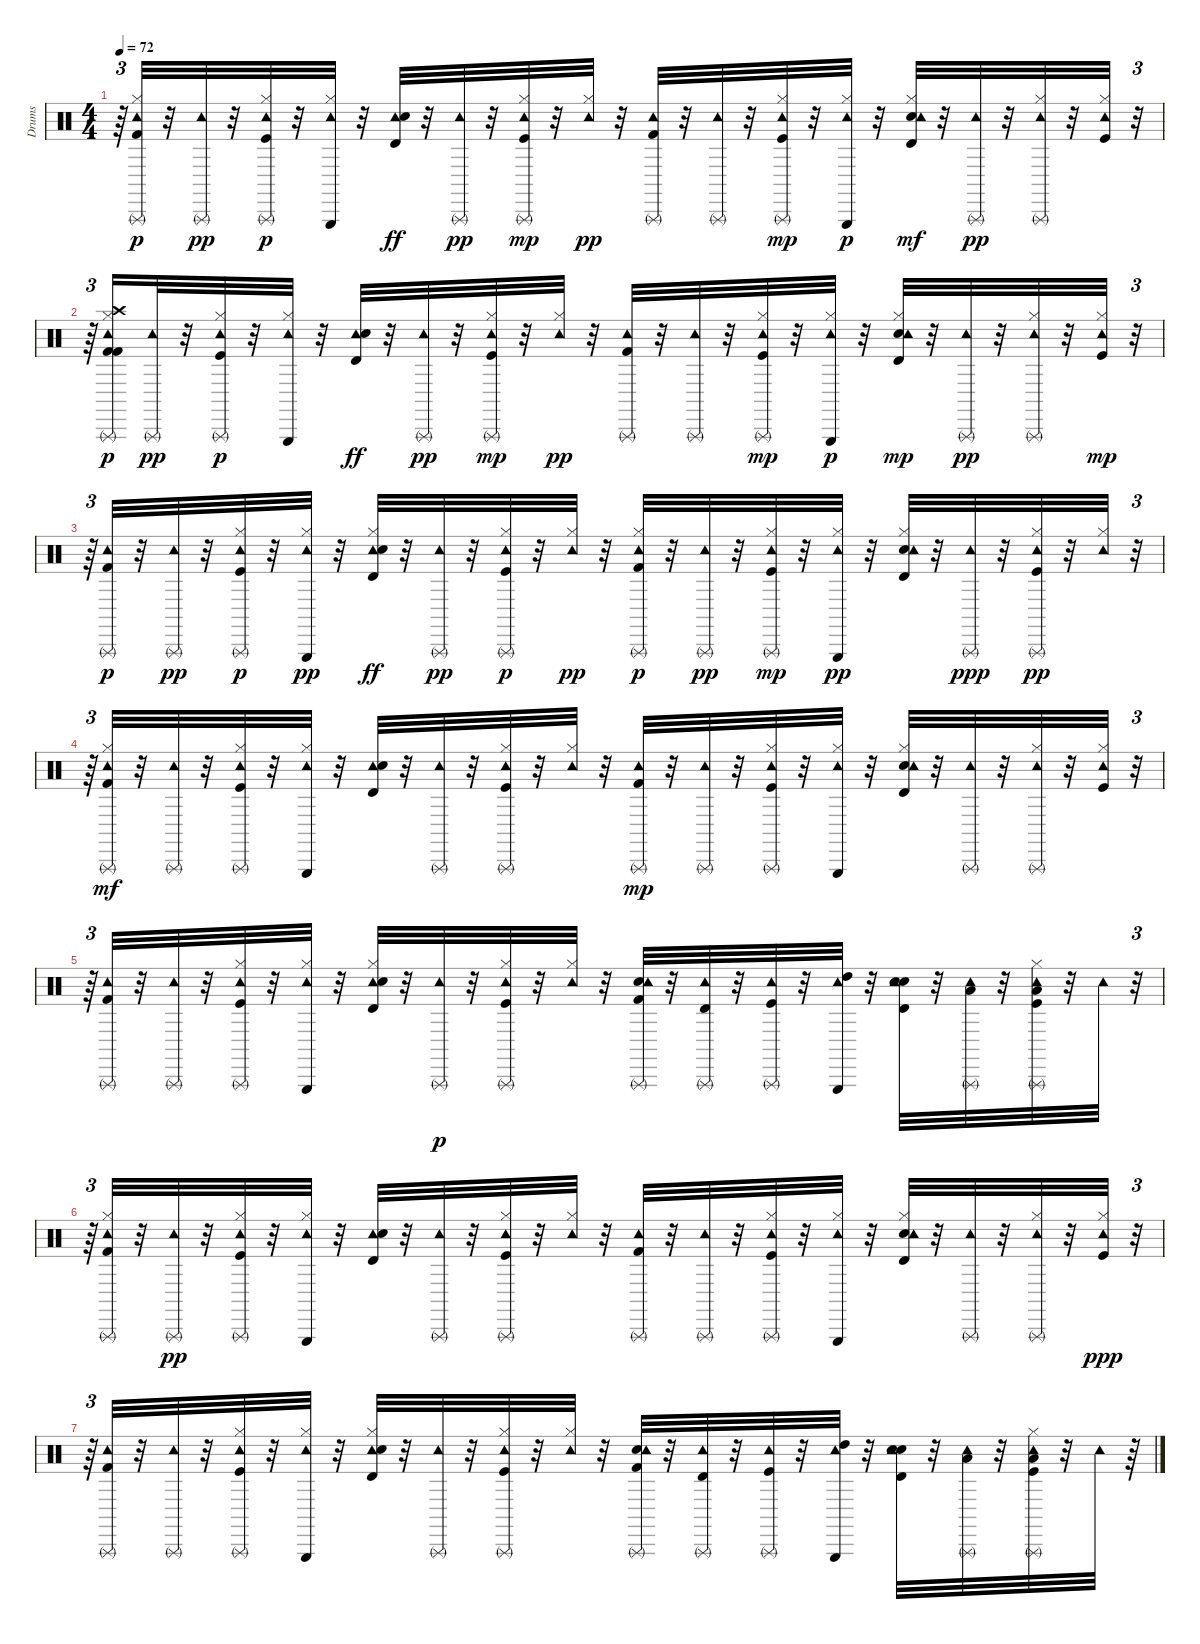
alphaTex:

\track ("Drums" "Drums") {instrument percussion}
\staff {score}
\articulation defaults
\ts (4 4)
\tempo 72
\clef neutral
\ks c
r.64{tu (3 2) dy pp} ("Hi-Hat (closed)" "Tambourine (hit)" "Triangle (rnute)" "Kick (hit) 2").32{dy p} r.32 ("Triangle (rnute)" "Tambourine (hit)").32{dy pp} r.32 ("Kick (hit)" "Hi-Hat (closed)" "Tambourine (hit)" "Triangle (rnute)").32{dy p} r.32 ("Hi-Hat (closed)" "Tambourine (hit)" "Triangle (hit)").32 r.32 ("Tambourine (hit)" "Electric Snare (hit)" "Timbale high (hit)").32{dy ff} r.32 ("Triangle (rnute)" "Tambourine (hit)").32{dy pp} r.32 ("Kick (hit)" "Hi-Hat (closed)" "Tambourine (hit)" "Triangle (rnute)").32{dy mp} r.32 ("Hi-Hat (closed)" "Tambourine (hit)").32{dy pp} r.32 ("Tambourine (hit)" "Kick (hit) 2" "Triangle (rnute)").32 r.32 ("Triangle (rnute)" "Tambourine (hit)").32 r.32 ("Hi-Hat (closed)" "Triangle (rnute)" "Tambourine (hit)" "Kick (hit)").32{dy mp} r.32 ("Hi-Hat (closed)" "Tambourine (hit)" "Triangle (hit)").32{dy p} r.32 ("Timbale high (hit)" "Electric Snare (hit)" "Tambourine (hit)" "Hi-Hat (closed)").32{dy mf} r.32 ("Tambourine (hit)" "Triangle (rnute)").32{dy pp} r.32 ("Tambourine (hit)" "Hi-Hat (closed)" "Triangle (rnute)").32 r.32 ("Kick (hit)" "Tambourine (hit)" "Hi-Hat (closed)").32 r.32{tu (3 2)} |
r.64{tu (3 2)} ("Kick (hit) 2" "Hi-Hat (closed)" "Crash high (hit)" "Tambourine (hit)" "Triangle (rnute)" "Kick (hit) 2").16{dy p} ("Triangle (rnute)" "Tambourine (hit)").32{dy pp} r.32 ("Kick (hit)" "Hi-Hat (closed)" "Tambourine (hit)" "Triangle (rnute)").32{dy p} r.32 ("Hi-Hat (closed)" "Tambourine (hit)" "Triangle (hit)").32 r.32 ("Tambourine (hit)" "Electric Snare (hit)" "Timbale high (hit)").32{dy ff} r.32 ("Triangle (rnute)" "Tambourine (hit)").32{dy pp} r.32 ("Kick (hit)" "Hi-Hat (closed)" "Tambourine (hit)" "Triangle (rnute)").32{dy mp} r.32 ("Hi-Hat (closed)" "Tambourine (hit)").32{dy pp} r.32 ("Tambourine (hit)" "Kick (hit) 2" "Triangle (rnute)").32 r.32 ("Triangle (rnute)" "Tambourine (hit)").32 r.32 ("Hi-Hat (closed)" "Triangle (rnute)" "Tambourine (hit)" "Kick (hit)").32{dy mp} r.32 ("Hi-Hat (closed)" "Tambourine (hit)" "Triangle (hit)").32{dy p} r.32 ("Timbale high (hit)" "Electric Snare (hit)" "Tambourine (hit)" "Hi-Hat (closed)").32{dy mp} r.32 ("Tambourine (hit)" "Triangle (rnute)").32{dy pp} r.32 ("Tambourine (hit)" "Hi-Hat (closed)" "Triangle (rnute)").32 r.32 ("Kick (hit)" "Tambourine (hit)" "Hi-Hat (closed)").32{dy mp} r.32{tu (3 2)} |
r.64{tu (3 2)} ("Kick (hit) 2" "Tambourine (hit)" "Triangle (rnute)").32{dy p} r.32 ("Triangle (rnute)" "Tambourine (hit)").32{dy pp} r.32 ("Kick (hit)" "Hi-Hat (closed)" "Triangle (rnute)" "Tambourine (hit)").32{dy p} r.32 ("Hi-Hat (closed)" "Triangle (hit)" "Tambourine (hit)").32{dy pp} r.32 ("Hi-Hat (closed)" "Tambourine (hit)" "Electric Snare (hit)" "Timbale high (hit)").32{dy ff} r.32 ("Tambourine (hit)" "Triangle (rnute)").32{dy pp} r.32 ("Kick (hit)" "Hi-Hat (closed)" "Tambourine (hit)" "Triangle (rnute)").32{dy p} r.32 ("Hi-Hat (closed)" "Tambourine (hit)").32{dy pp} r.32 ("Hi-Hat (closed)" "Triangle (rnute)" "Tambourine (hit)" "Kick (hit) 2").32{dy p} r.32 ("Triangle (rnute)" "Tambourine (hit)").32{dy pp} r.32 ("Hi-Hat (closed)" "Triangle (rnute)" "Tambourine (hit)" "Kick (hit)").32{dy mp} r.32 ("Hi-Hat (closed)" "Triangle (hit)" "Tambourine (hit)").32{dy pp} r.32 ("Electric Snare (hit)" "Timbale high (hit)" "Hi-Hat (closed)" "Tambourine (hit)").32 r.32 ("Triangle (rnute)" "Tambourine (hit)").32{dy ppp} r.32 ("Kick (hit)" "Hi-Hat (closed)" "Triangle (rnute)" "Tambourine (hit)").32{dy pp} r.32 ("Hi-Hat (closed)" "Tambourine (hit)").32 r.32{tu (3 2)} |
r.64{tu (3 2)} ("Hi-Hat (closed)" "Tambourine (hit)" "Triangle (rnute)" "Kick (hit) 2").32{dy mf} r.32 ("Triangle (rnute)" "Tambourine (hit)").32 r.32 ("Kick (hit)" "Hi-Hat (closed)" "Tambourine (hit)" "Triangle (rnute)").32 r.32 ("Hi-Hat (closed)" "Tambourine (hit)" "Triangle (hit)").32 r.32 ("Tambourine (hit)" "Electric Snare (hit)" "Timbale high (hit)").32 r.32 ("Triangle (rnute)" "Tambourine (hit)").32 r.32 ("Kick (hit)" "Hi-Hat (closed)" "Tambourine (hit)" "Triangle (rnute)").32 r.32 ("Hi-Hat (closed)" "Tambourine (hit)").32 r.32 ("Tambourine (hit)" "Kick (hit) 2" "Triangle (rnute)").32{dy mp} r.32 ("Triangle (rnute)" "Tambourine (hit)").32 r.32 ("Hi-Hat (closed)" "Triangle (rnute)" "Tambourine (hit)" "Kick (hit)").32 r.32 ("Hi-Hat (closed)" "Tambourine (hit)" "Triangle (hit)").32 r.32 ("Timbale high (hit)" "Electric Snare (hit)" "Tambourine (hit)" "Hi-Hat (closed)").32 r.32 ("Tambourine (hit)" "Triangle (rnute)").32 r.32 ("Tambourine (hit)" "Hi-Hat (closed)" "Triangle (rnute)").32 r.32 ("Kick (hit)" "Tambourine (hit)" "Hi-Hat (closed)").32 r.32{tu (3 2)} |
r.64{tu (3 2)} ("Kick (hit) 2" "Tambourine (hit)" "Triangle (rnute)").32 r.32 ("Triangle (rnute)" "Tambourine (hit)").32 r.32 ("Kick (hit)" "Hi-Hat (closed)" "Triangle (rnute)" "Tambourine (hit)").32 r.32 ("Hi-Hat (closed)" "Triangle (hit)" "Tambourine (hit)").32 r.32 ("Hi-Hat (closed)" "Tambourine (hit)" "Electric Snare (hit)" "Timbale high (hit)").32 r.32 ("Tambourine (hit)" "Triangle (rnute)").32{dy p} r.32 ("Kick (hit)" "Hi-Hat (closed)" "Tambourine (hit)" "Triangle (rnute)").32 r.32 ("Hi-Hat (closed)" "Tambourine (hit)").32 r.32 ("Snare (hit) 2" "Triangle (rnute)" "Tambourine (hit)" "Kick (hit) 2").32 r.32 ("Triangle (rnute)" "Tambourine (hit)" "Timbale high (hit)").32 r.32 ("Triangle (rnute)" "Tambourine (hit)" "Kick (hit)").32 r.32 ("High Tom (hit)" "Triangle (hit)" "Tambourine (hit)").32 r.32 ("Snare (hit) 2" "Electric Snare (hit)" "Timbale high (hit)" "Tambourine (hit)").32 r.32 ("Triangle (rnute)" "Tambourine (hit)" "Low Tom (hit)").32 r.32 ("Kick (hit)" "Hi-Hat (closed)" "Triangle (rnute)" "Tambourine (hit)" "Low Tom (hit)").32 r.32 "Tambourine (hit)".32 r.32{tu (3 2)} |
r.64{tu (3 2)} ("Hi-Hat (closed)" "Tambourine (hit)" "Triangle (rnute)" "Kick (hit) 2").32 r.32 ("Triangle (rnute)" "Tambourine (hit)").32{dy pp} r.32 ("Kick (hit)" "Hi-Hat (closed)" "Tambourine (hit)" "Triangle (rnute)").32 r.32 ("Hi-Hat (closed)" "Tambourine (hit)" "Triangle (hit)").32 r.32 ("Tambourine (hit)" "Electric Snare (hit)" "Timbale high (hit)").32 r.32 ("Triangle (rnute)" "Tambourine (hit)").32 r.32 ("Kick (hit)" "Hi-Hat (closed)" "Tambourine (hit)" "Triangle (rnute)").32 r.32 ("Hi-Hat (closed)" "Tambourine (hit)").32 r.32 ("Tambourine (hit)" "Kick (hit) 2" "Triangle (rnute)").32 r.32 ("Triangle (rnute)" "Tambourine (hit)").32 r.32 ("Hi-Hat (closed)" "Triangle (rnute)" "Tambourine (hit)" "Kick (hit)").32 r.32 ("Hi-Hat (closed)" "Tambourine (hit)" "Triangle (hit)").32 r.32 ("Timbale high (hit)" "Electric Snare (hit)" "Tambourine (hit)" "Hi-Hat (closed)").32 r.32 ("Tambourine (hit)" "Triangle (rnute)").32 r.32 ("Tambourine (hit)" "Hi-Hat (closed)" "Triangle (rnute)").32 r.32 ("Kick (hit)" "Tambourine (hit)" "Hi-Hat (closed)").32{dy ppp} r.32{tu (3 2)} |
r.64{tu (3 2)} ("Kick (hit) 2" "Tambourine (hit)" "Triangle (rnute)").32 r.32 ("Triangle (rnute)" "Tambourine (hit)").32 r.32 ("Kick (hit)" "Hi-Hat (closed)" "Triangle (rnute)" "Tambourine (hit)").32 r.32 ("Hi-Hat (closed)" "Triangle (hit)" "Tambourine (hit)").32 r.32 ("Hi-Hat (closed)" "Tambourine (hit)" "Electric Snare (hit)" "Timbale high (hit)").32 r.32 ("Tambourine (hit)" "Triangle (rnute)").32 r.32 ("Kick (hit)" "Hi-Hat (closed)" "Tambourine (hit)" "Triangle (rnute)").32 r.32 ("Hi-Hat (closed)" "Tambourine (hit)").32 r.32 ("Snare (hit) 2" "Triangle (rnute)" "Tambourine (hit)" "Kick (hit) 2").32 r.32 ("Triangle (rnute)" "Tambourine (hit)" "Timbale high (hit)").32 r.32 ("Triangle (rnute)" "Tambourine (hit)" "Kick (hit)").32 r.32 ("High Tom (hit)" "Triangle (hit)" "Tambourine (hit)").32 r.32 ("Snare (hit) 2" "Electric Snare (hit)" "Timbale high (hit)" "Tambourine (hit)").32 r.32 ("Triangle (rnute)" "Tambourine (hit)" "Low Tom (hit)").32 r.32 ("Kick (hit)" "Hi-Hat (closed)" "Triangle (rnute)" "Tambourine (hit)" "Low Tom (hit)").32 r.32 "Tambourine (hit)".32 r.64
